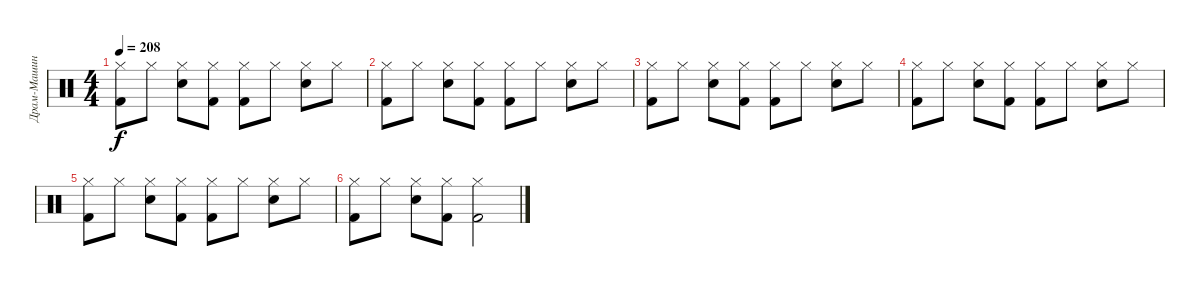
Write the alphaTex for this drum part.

\track ("Драм-Машина" "Драм-Машин") {instrument percussion}
\staff {score}
\articulation defaults
\ts (4 4)
\tempo 208
\clef neutral
\ks c
("Hi-Hat (closed)" "Kick (hit) 2").8{dy f} "Hi-Hat (closed)".8 ("Hi-Hat (closed)" "Electric Snare (hit)").8 ("Hi-Hat (closed)" "Kick (hit) 2").8 ("Hi-Hat (closed)" "Kick (hit) 2").8 "Hi-Hat (closed)".8 ("Hi-Hat (closed)" "Electric Snare (hit)").8 "Hi-Hat (closed)".8 |
("Hi-Hat (closed)" "Kick (hit) 2").8 "Hi-Hat (closed)".8 ("Hi-Hat (closed)" "Electric Snare (hit)").8 ("Hi-Hat (closed)" "Kick (hit) 2").8 ("Hi-Hat (closed)" "Kick (hit) 2").8 "Hi-Hat (closed)".8 ("Hi-Hat (closed)" "Electric Snare (hit)").8 "Hi-Hat (closed)".8 |
("Hi-Hat (closed)" "Kick (hit) 2").8 "Hi-Hat (closed)".8 ("Hi-Hat (closed)" "Electric Snare (hit)").8 ("Hi-Hat (closed)" "Kick (hit) 2").8 ("Hi-Hat (closed)" "Kick (hit) 2").8 "Hi-Hat (closed)".8 ("Hi-Hat (closed)" "Electric Snare (hit)").8 "Hi-Hat (closed)".8 |
("Hi-Hat (closed)" "Kick (hit) 2").8 "Hi-Hat (closed)".8 ("Hi-Hat (closed)" "Electric Snare (hit)").8 ("Hi-Hat (closed)" "Kick (hit) 2").8 ("Hi-Hat (closed)" "Kick (hit) 2").8 "Hi-Hat (closed)".8 ("Hi-Hat (closed)" "Electric Snare (hit)").8 "Hi-Hat (closed)".8 |
("Hi-Hat (closed)" "Kick (hit) 2").8 "Hi-Hat (closed)".8 ("Hi-Hat (closed)" "Electric Snare (hit)").8 ("Hi-Hat (closed)" "Kick (hit) 2").8 ("Hi-Hat (closed)" "Kick (hit) 2").8 "Hi-Hat (closed)".8 ("Hi-Hat (closed)" "Electric Snare (hit)").8 "Hi-Hat (closed)".8 |
("Hi-Hat (closed)" "Kick (hit) 2").8 "Hi-Hat (closed)".8 ("Hi-Hat (closed)" "Electric Snare (hit)").8 ("Hi-Hat (closed)" "Kick (hit) 2").8 ("Hi-Hat (closed)" "Kick (hit) 2").2
